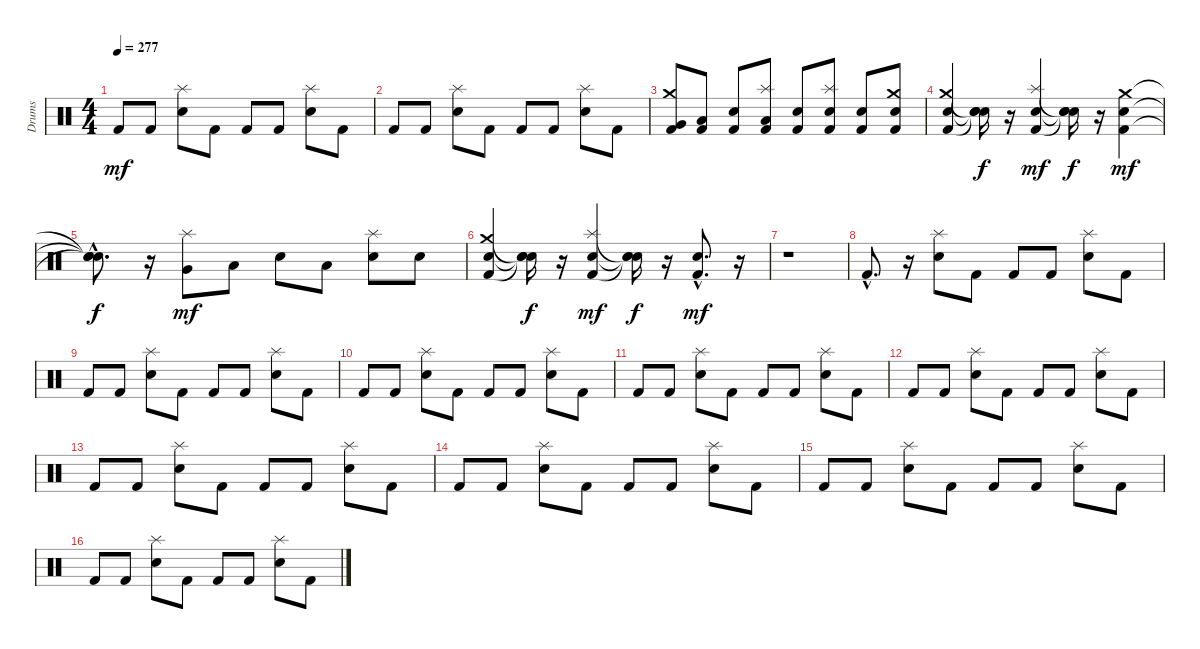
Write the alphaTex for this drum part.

\track ("Drums" "Drums") {instrument percussion}
\staff {score}
\articulation defaults
\ts (4 4)
\tempo 277
\clef neutral
\ks c "Kick (hit) 2".8{dy mf} "Kick (hit) 2".8
("Splash (hit)" "Electric Snare (hit)").8 "Kick (hit) 2".8 "Kick (hit) 2".8 "Kick (hit) 2".8 ("Splash (hit)" "Electric Snare (hit)").8 "Kick (hit) 2".8 |
"Kick (hit) 2".8 "Kick (hit) 2".8 ("Splash (hit)" "Electric Snare (hit)").8 "Kick (hit) 2".8 "Kick (hit) 2".8 "Kick (hit) 2".8 ("Electric Snare (hit)" "Splash (hit)").8 "Kick (hit) 2".8 |
("Crash medium (hit)" "Kick (hit) 2" "Very Low Tom (hit)").8 ("Kick (hit) 2" "Low Floor Tom (hit)").8 ("Electric Snare (hit)" "Kick (hit) 2").8 ("Splash (hit)" "Kick (hit) 2" "Low Floor Tom (hit)").8 ("Kick (hit) 2" "Electric Snare (hit)").8 ("Splash (hit)" "Snare (hit) 2" "Kick (hit) 2").8 ("Kick (hit) 2" "Electric Snare (hit)").8 ("Crash medium (hit)" "Snare (hit) 2" "Kick (hit) 2").8 |
("Kick (hit) 2" "Snare (hit) 2" "Crash medium (hit)").4 ("Snare (hit)"{t} "Snare (hit)"{t} "Snare (hit)"{t}).16{dy f} r.16 ("Electric Snare (hit)" "Kick (hit) 2" "Splash (hit)").4{dy mf} ("Snare (hit)"{t} "Snare (hit)"{t} "Snare (hit)"{t}).16{dy f} r.16 ("Crash medium (hit)" "Kick (hit) 2" "Electric Snare (hit)").4{dy mf} |
("Snare (hit)"{hac t} "Snare (hit)"{hac t} "Snare (hit)"{hac t}).8{d dy f} r.16 ("Splash (hit)" "Very Low Tom (hit)").8{dy mf} "Low Floor Tom (hit)".8 "Snare (hit) 2".8 "Low Floor Tom (hit)".8 ("Electric Snare (hit)" "Splash (hit)").8 "Snare (hit) 2".8 |
("Crash medium (hit)" "Kick (hit) 2" "Snare (hit) 2").4 ("Snare (hit)"{t} "Snare (hit)"{t} "Snare (hit)"{t}).16{dy f} r.16 ("Splash (hit)" "Electric Snare (hit)" "Kick (hit) 2").4{dy mf} ("Snare (hit)"{t} "Snare (hit)"{t} "Snare (hit)"{t}).16{dy f} r.16 ("Electric Snare (hit)"{hac} "Kick (hit) 2"{hac}).8{d dy mf} r.16 |
r.1 |
"Kick (hit) 2"{hac}.8{d} r.16 ("Splash (hit)" "Electric Snare (hit)").8 "Kick (hit) 2".8 "Kick (hit) 2".8 "Kick (hit) 2".8 ("Splash (hit)" "Electric Snare (hit)").8 "Kick (hit) 2".8 |
"Kick (hit) 2".8 "Kick (hit) 2".8 ("Electric Snare (hit)" "Splash (hit)").8 "Kick (hit) 2".8 "Kick (hit) 2".8 "Kick (hit) 2".8 ("Electric Snare (hit)" "Splash (hit)").8 "Kick (hit) 2".8 |
"Kick (hit) 2".8 "Kick (hit) 2".8 ("Electric Snare (hit)" "Splash (hit)").8 "Kick (hit) 2".8 "Kick (hit) 2".8 "Kick (hit) 2".8 ("Electric Snare (hit)" "Splash (hit)").8 "Kick (hit) 2".8 |
"Kick (hit) 2".8 "Kick (hit) 2".8 ("Splash (hit)" "Electric Snare (hit)").8 "Kick (hit) 2".8 "Kick (hit) 2".8 "Kick (hit) 2".8 ("Splash (hit)" "Electric Snare (hit)").8 "Kick (hit) 2".8 |
"Kick (hit) 2".8 "Kick (hit) 2".8 ("Electric Snare (hit)" "Splash (hit)").8 "Kick (hit) 2".8 "Kick (hit) 2".8 "Kick (hit) 2".8 ("Electric Snare (hit)" "Splash (hit)").8 "Kick (hit) 2".8 |
"Kick (hit) 2".8 "Kick (hit) 2".8 ("Electric Snare (hit)" "Splash (hit)").8 "Kick (hit) 2".8 "Kick (hit) 2".8 "Kick (hit) 2".8 ("Splash (hit)" "Electric Snare (hit)").8 "Kick (hit) 2".8 |
"Kick (hit) 2".8 "Kick (hit) 2".8 ("Electric Snare (hit)" "Splash (hit)").8 "Kick (hit) 2".8 "Kick (hit) 2".8 "Kick (hit) 2".8 ("Electric Snare (hit)" "Splash (hit)").8 "Kick (hit) 2".8 |
"Kick (hit) 2".8 "Kick (hit) 2".8 ("Splash (hit)" "Electric Snare (hit)").8 "Kick (hit) 2".8 "Kick (hit) 2".8 "Kick (hit) 2".8 ("Splash (hit)" "Electric Snare (hit)").8 "Kick (hit) 2".8 |
"Kick (hit) 2".8 "Kick (hit) 2".8 ("Electric Snare (hit)" "Splash (hit)").8 "Kick (hit) 2".8 "Kick (hit) 2".8 "Kick (hit) 2".8 ("Splash (hit)" "Electric Snare (hit)").8 "Kick (hit) 2".8
